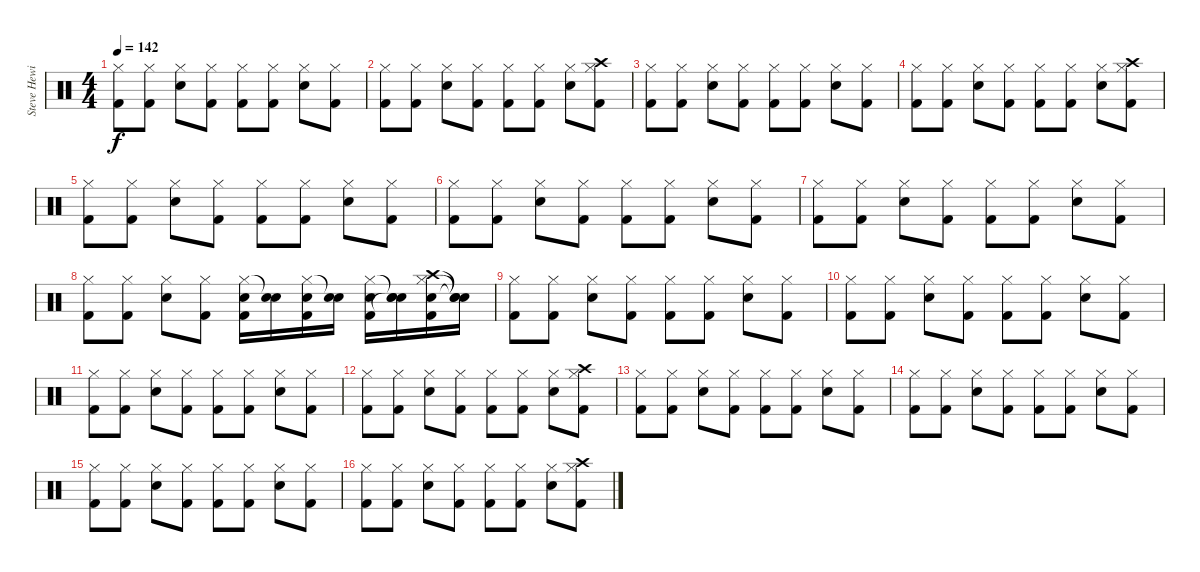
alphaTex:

\track ("Steve Hewitt" "Steve Hewi") {instrument percussion}
\staff {score}
\articulation defaults
\ts (4 4)
\tempo 142
\clef neutral
\ks c
("Hi-Hat (closed)" "Kick (hit) 2").8{dy f} ("Hi-Hat (closed)" "Kick (hit) 2").8 ("Hi-Hat (closed)" "Snare (hit) 2").8 ("Hi-Hat (closed)" "Kick (hit) 2").8 ("Hi-Hat (closed)" "Kick (hit) 2").8 ("Hi-Hat (closed)" "Kick (hit) 2").8 ("Hi-Hat (closed)" "Snare (hit) 2").8 ("Hi-Hat (closed)" "Kick (hit) 2").8 |
("Hi-Hat (closed)" "Kick (hit) 2").8 ("Hi-Hat (closed)" "Kick (hit) 2").8 ("Hi-Hat (closed)" "Snare (hit) 2").8 ("Hi-Hat (closed)" "Kick (hit) 2").8 ("Hi-Hat (closed)" "Kick (hit) 2").8 ("Hi-Hat (closed)" "Kick (hit) 2").8 ("Hi-Hat (closed)" "Snare (hit) 2").8 ("Crash high (hit)" "Hi-Hat (closed)" "Kick (hit) 2").8 |
("Hi-Hat (closed)" "Kick (hit) 2").8 ("Hi-Hat (closed)" "Kick (hit) 2").8 ("Hi-Hat (closed)" "Snare (hit) 2").8 ("Hi-Hat (closed)" "Kick (hit) 2").8 ("Hi-Hat (closed)" "Kick (hit) 2").8 ("Hi-Hat (closed)" "Kick (hit) 2").8 ("Hi-Hat (closed)" "Snare (hit) 2").8 ("Hi-Hat (closed)" "Kick (hit) 2").8 |
("Hi-Hat (closed)" "Kick (hit) 2").8 ("Hi-Hat (closed)" "Kick (hit) 2").8 ("Hi-Hat (closed)" "Snare (hit) 2").8 ("Hi-Hat (closed)" "Kick (hit) 2").8 ("Hi-Hat (closed)" "Kick (hit) 2").8 ("Hi-Hat (closed)" "Kick (hit) 2").8 ("Hi-Hat (closed)" "Snare (hit) 2").8 ("Crash high (hit)" "Hi-Hat (closed)" "Kick (hit) 2").8 |
("Hi-Hat (closed)" "Kick (hit) 2").8 ("Hi-Hat (closed)" "Kick (hit) 2").8 ("Hi-Hat (closed)" "Snare (hit) 2").8 ("Hi-Hat (closed)" "Kick (hit) 2").8 ("Hi-Hat (closed)" "Kick (hit) 2").8 ("Hi-Hat (closed)" "Kick (hit) 2").8 ("Hi-Hat (closed)" "Snare (hit) 2").8 ("Hi-Hat (closed)" "Kick (hit) 2").8 |
("Hi-Hat (closed)" "Kick (hit) 2").8 ("Hi-Hat (closed)" "Kick (hit) 2").8 ("Hi-Hat (closed)" "Snare (hit) 2").8 ("Hi-Hat (closed)" "Kick (hit) 2").8 ("Hi-Hat (closed)" "Kick (hit) 2").8 ("Hi-Hat (closed)" "Kick (hit) 2").8 ("Hi-Hat (closed)" "Snare (hit) 2").8 ("Hi-Hat (closed)" "Kick (hit) 2").8 |
("Hi-Hat (closed)" "Kick (hit) 2").8 ("Hi-Hat (closed)" "Kick (hit) 2").8 ("Hi-Hat (closed)" "Snare (hit) 2").8 ("Hi-Hat (closed)" "Kick (hit) 2").8 ("Hi-Hat (closed)" "Kick (hit) 2").8 ("Hi-Hat (closed)" "Kick (hit) 2").8 ("Hi-Hat (closed)" "Snare (hit) 2").8 ("Hi-Hat (closed)" "Kick (hit) 2").8 |
("Hi-Hat (closed)" "Kick (hit) 2").8 ("Hi-Hat (closed)" "Kick (hit) 2").8 ("Hi-Hat (closed)" "Snare (hit) 2").8 ("Hi-Hat (closed)" "Kick (hit) 2").8 ("Snare (hit) 2" "Hi-Hat (closed)" "Kick (hit) 2").16 ("Snare (hit) 2" "Snare (hit)"{t}).16 ("Snare (hit) 2" "Hi-Hat (closed)" "Kick (hit) 2").16 ("Snare (hit) 2" "Snare (hit)"{t}).16 ("Snare (hit) 2" "Hi-Hat (closed)" "Kick (hit) 2").16 ("Snare (hit) 2" "Snare (hit)"{t} "Snare (hit)"{t}).16 ("Snare (hit) 2" "Crash high (hit)" "Hi-Hat (closed)" "Kick (hit) 2").16 ("Snare (hit)"{t} "Snare (hit)"{t} "Snare (hit)"{t}).16 |
("Hi-Hat (closed)" "Kick (hit) 2").8 ("Hi-Hat (closed)" "Kick (hit) 2").8 ("Hi-Hat (closed)" "Snare (hit) 2").8 ("Hi-Hat (closed)" "Kick (hit) 2").8 ("Hi-Hat (closed)" "Kick (hit) 2").8 ("Hi-Hat (closed)" "Kick (hit) 2").8 ("Hi-Hat (closed)" "Snare (hit) 2").8 ("Hi-Hat (closed)" "Kick (hit) 2").8 |
("Hi-Hat (closed)" "Kick (hit) 2").8 ("Hi-Hat (closed)" "Kick (hit) 2").8 ("Hi-Hat (closed)" "Snare (hit) 2").8 ("Hi-Hat (closed)" "Kick (hit) 2").8 ("Hi-Hat (closed)" "Kick (hit) 2").8 ("Hi-Hat (closed)" "Kick (hit) 2").8 ("Hi-Hat (closed)" "Snare (hit) 2").8 ("Hi-Hat (closed)" "Kick (hit) 2").8 |
("Hi-Hat (closed)" "Kick (hit) 2").8 ("Hi-Hat (closed)" "Kick (hit) 2").8 ("Hi-Hat (closed)" "Snare (hit) 2").8 ("Hi-Hat (closed)" "Kick (hit) 2").8 ("Hi-Hat (closed)" "Kick (hit) 2").8 ("Hi-Hat (closed)" "Kick (hit) 2").8 ("Hi-Hat (closed)" "Snare (hit) 2").8 ("Hi-Hat (closed)" "Kick (hit) 2").8 |
("Hi-Hat (closed)" "Kick (hit) 2").8 ("Hi-Hat (closed)" "Kick (hit) 2").8 ("Hi-Hat (closed)" "Snare (hit) 2").8 ("Hi-Hat (closed)" "Kick (hit) 2").8 ("Hi-Hat (closed)" "Kick (hit) 2").8 ("Hi-Hat (closed)" "Kick (hit) 2").8 ("Hi-Hat (closed)" "Snare (hit) 2").8 ("Crash high (hit)" "Hi-Hat (closed)" "Kick (hit) 2").8 |
("Hi-Hat (closed)" "Kick (hit) 2").8 ("Hi-Hat (closed)" "Kick (hit) 2").8 ("Hi-Hat (closed)" "Snare (hit) 2").8 ("Hi-Hat (closed)" "Kick (hit) 2").8 ("Hi-Hat (closed)" "Kick (hit) 2").8 ("Hi-Hat (closed)" "Kick (hit) 2").8 ("Hi-Hat (closed)" "Snare (hit) 2").8 ("Hi-Hat (closed)" "Kick (hit) 2").8 |
("Hi-Hat (closed)" "Kick (hit) 2").8 ("Hi-Hat (closed)" "Kick (hit) 2").8 ("Hi-Hat (closed)" "Snare (hit) 2").8 ("Hi-Hat (closed)" "Kick (hit) 2").8 ("Hi-Hat (closed)" "Kick (hit) 2").8 ("Hi-Hat (closed)" "Kick (hit) 2").8 ("Hi-Hat (closed)" "Snare (hit) 2").8 ("Hi-Hat (closed)" "Kick (hit) 2").8 |
("Hi-Hat (closed)" "Kick (hit) 2").8 ("Hi-Hat (closed)" "Kick (hit) 2").8 ("Hi-Hat (closed)" "Snare (hit) 2").8 ("Hi-Hat (closed)" "Kick (hit) 2").8 ("Hi-Hat (closed)" "Kick (hit) 2").8 ("Hi-Hat (closed)" "Kick (hit) 2").8 ("Hi-Hat (closed)" "Snare (hit) 2").8 ("Hi-Hat (closed)" "Kick (hit) 2").8 |
("Hi-Hat (closed)" "Kick (hit) 2").8 ("Hi-Hat (closed)" "Kick (hit) 2").8 ("Hi-Hat (closed)" "Snare (hit) 2").8 ("Hi-Hat (closed)" "Kick (hit) 2").8 ("Hi-Hat (closed)" "Kick (hit) 2").8 ("Hi-Hat (closed)" "Kick (hit) 2").8 ("Hi-Hat (closed)" "Snare (hit) 2").8 ("Crash high (hit)" "Hi-Hat (closed)" "Kick (hit) 2").8
